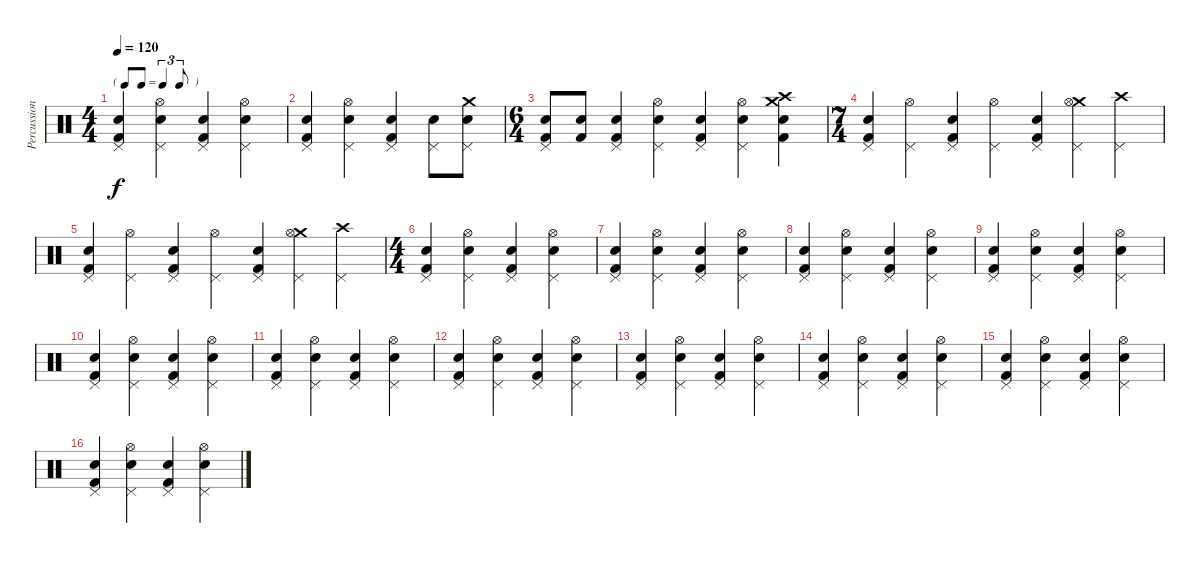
\track ("Percussions" "Percussion") {instrument percussion}
\staff {score}
\articulation defaults
\ts (4 4)
\tf triplet8th
\tempo 120
\clef neutral
\ks c
("Kick (hit) 2" "Snare (hit) 2" "Pedal Hi-Hat (hit)").4{dy f} ("Hi-Hat (open)" "Snare (hit) 2" "Pedal Hi-Hat (hit)").4 ("Kick (hit) 2" "Snare (hit) 2" "Pedal Hi-Hat (hit)").4 ("Hi-Hat (open)" "Snare (hit) 2" "Pedal Hi-Hat (hit)").4 |
("Kick (hit) 2" "Snare (hit) 2" "Pedal Hi-Hat (hit)").4 ("Hi-Hat (open)" "Snare (hit) 2" "Pedal Hi-Hat (hit)").4 ("Kick (hit) 2" "Snare (hit) 2" "Pedal Hi-Hat (hit)").4 ("Snare (hit) 2" "Pedal Hi-Hat (hit)").8 ("Crash medium (hit)" "Snare (hit) 2" "Pedal Hi-Hat (hit)").8 |
\ts (6 4)
("Kick (hit) 2" "Snare (hit) 2" "Pedal Hi-Hat (hit)").8 ("Snare (hit) 2" "Kick (hit) 2").8 ("Kick (hit) 2" "Snare (hit) 2" "Pedal Hi-Hat (hit)").4 ("Hi-Hat (open)" "Snare (hit) 2" "Pedal Hi-Hat (hit)").4 ("Kick (hit) 2" "Snare (hit) 2" "Pedal Hi-Hat (hit)").4 ("Hi-Hat (open)" "Snare (hit) 2" "Pedal Hi-Hat (hit)").4 ("Kick (hit) 2" "Crash high (hit)" "Crash medium (hit)" "Snare (hit) 2").4 |
\ts (7 4)
("Kick (hit) 2" "Snare (hit) 2" "Pedal Hi-Hat (hit)").4 ("Hi-Hat (open)" "Pedal Hi-Hat (hit)").4 ("Kick (hit) 2" "Snare (hit) 2" "Pedal Hi-Hat (hit)").4 ("Hi-Hat (open)" "Pedal Hi-Hat (hit)").4 ("Kick (hit) 2" "Snare (hit) 2" "Pedal Hi-Hat (hit)").4 ("Crash medium (hit)" "Hi-Hat (open)" "Pedal Hi-Hat (hit)").4 ("Crash high (hit)" "Pedal Hi-Hat (hit)").4 |
("Kick (hit) 2" "Snare (hit) 2" "Pedal Hi-Hat (hit)").4 ("Hi-Hat (open)" "Pedal Hi-Hat (hit)").4 ("Kick (hit) 2" "Snare (hit) 2" "Pedal Hi-Hat (hit)").4 ("Hi-Hat (open)" "Pedal Hi-Hat (hit)").4 ("Kick (hit) 2" "Snare (hit) 2" "Pedal Hi-Hat (hit)").4 ("Crash medium (hit)" "Hi-Hat (open)" "Pedal Hi-Hat (hit)").4 ("Crash high (hit)" "Pedal Hi-Hat (hit)").4 |
\ts (4 4)
("Kick (hit) 2" "Snare (hit) 2" "Pedal Hi-Hat (hit)").4 ("Hi-Hat (open)" "Snare (hit) 2" "Pedal Hi-Hat (hit)").4 ("Kick (hit) 2" "Snare (hit) 2" "Pedal Hi-Hat (hit)").4 ("Hi-Hat (open)" "Snare (hit) 2" "Pedal Hi-Hat (hit)").4 |
("Kick (hit) 2" "Snare (hit) 2" "Pedal Hi-Hat (hit)").4 ("Hi-Hat (open)" "Snare (hit) 2" "Pedal Hi-Hat (hit)").4 ("Kick (hit) 2" "Snare (hit) 2" "Pedal Hi-Hat (hit)").4 ("Hi-Hat (open)" "Snare (hit) 2" "Pedal Hi-Hat (hit)").4 |
("Kick (hit) 2" "Snare (hit) 2" "Pedal Hi-Hat (hit)").4 ("Hi-Hat (open)" "Snare (hit) 2" "Pedal Hi-Hat (hit)").4 ("Kick (hit) 2" "Snare (hit) 2" "Pedal Hi-Hat (hit)").4 ("Hi-Hat (open)" "Snare (hit) 2" "Pedal Hi-Hat (hit)").4 |
("Kick (hit) 2" "Snare (hit) 2" "Pedal Hi-Hat (hit)").4 ("Hi-Hat (open)" "Snare (hit) 2" "Pedal Hi-Hat (hit)").4 ("Kick (hit) 2" "Snare (hit) 2" "Pedal Hi-Hat (hit)").4 ("Hi-Hat (open)" "Snare (hit) 2" "Pedal Hi-Hat (hit)").4 |
("Kick (hit) 2" "Snare (hit) 2" "Pedal Hi-Hat (hit)").4 ("Hi-Hat (open)" "Snare (hit) 2" "Pedal Hi-Hat (hit)").4 ("Kick (hit) 2" "Snare (hit) 2" "Pedal Hi-Hat (hit)").4 ("Hi-Hat (open)" "Snare (hit) 2" "Pedal Hi-Hat (hit)").4 |
("Kick (hit) 2" "Snare (hit) 2" "Pedal Hi-Hat (hit)").4 ("Hi-Hat (open)" "Snare (hit) 2" "Pedal Hi-Hat (hit)").4 ("Kick (hit) 2" "Snare (hit) 2" "Pedal Hi-Hat (hit)").4 ("Hi-Hat (open)" "Snare (hit) 2" "Pedal Hi-Hat (hit)").4 |
("Kick (hit) 2" "Snare (hit) 2" "Pedal Hi-Hat (hit)").4 ("Hi-Hat (open)" "Snare (hit) 2" "Pedal Hi-Hat (hit)").4 ("Kick (hit) 2" "Snare (hit) 2" "Pedal Hi-Hat (hit)").4 ("Hi-Hat (open)" "Snare (hit) 2" "Pedal Hi-Hat (hit)").4 |
("Kick (hit) 2" "Snare (hit) 2" "Pedal Hi-Hat (hit)").4 ("Hi-Hat (open)" "Snare (hit) 2" "Pedal Hi-Hat (hit)").4 ("Kick (hit) 2" "Snare (hit) 2" "Pedal Hi-Hat (hit)").4 ("Hi-Hat (open)" "Snare (hit) 2" "Pedal Hi-Hat (hit)").4 |
("Kick (hit) 2" "Snare (hit) 2" "Pedal Hi-Hat (hit)").4 ("Hi-Hat (open)" "Snare (hit) 2" "Pedal Hi-Hat (hit)").4 ("Kick (hit) 2" "Snare (hit) 2" "Pedal Hi-Hat (hit)").4 ("Hi-Hat (open)" "Snare (hit) 2" "Pedal Hi-Hat (hit)").4 |
("Kick (hit) 2" "Snare (hit) 2" "Pedal Hi-Hat (hit)").4 ("Hi-Hat (open)" "Snare (hit) 2" "Pedal Hi-Hat (hit)").4 ("Kick (hit) 2" "Snare (hit) 2" "Pedal Hi-Hat (hit)").4 ("Hi-Hat (open)" "Snare (hit) 2" "Pedal Hi-Hat (hit)").4 |
("Kick (hit) 2" "Snare (hit) 2" "Pedal Hi-Hat (hit)").4 ("Hi-Hat (open)" "Snare (hit) 2" "Pedal Hi-Hat (hit)").4 ("Kick (hit) 2" "Snare (hit) 2" "Pedal Hi-Hat (hit)").4 ("Hi-Hat (open)" "Snare (hit) 2" "Pedal Hi-Hat (hit)").4
